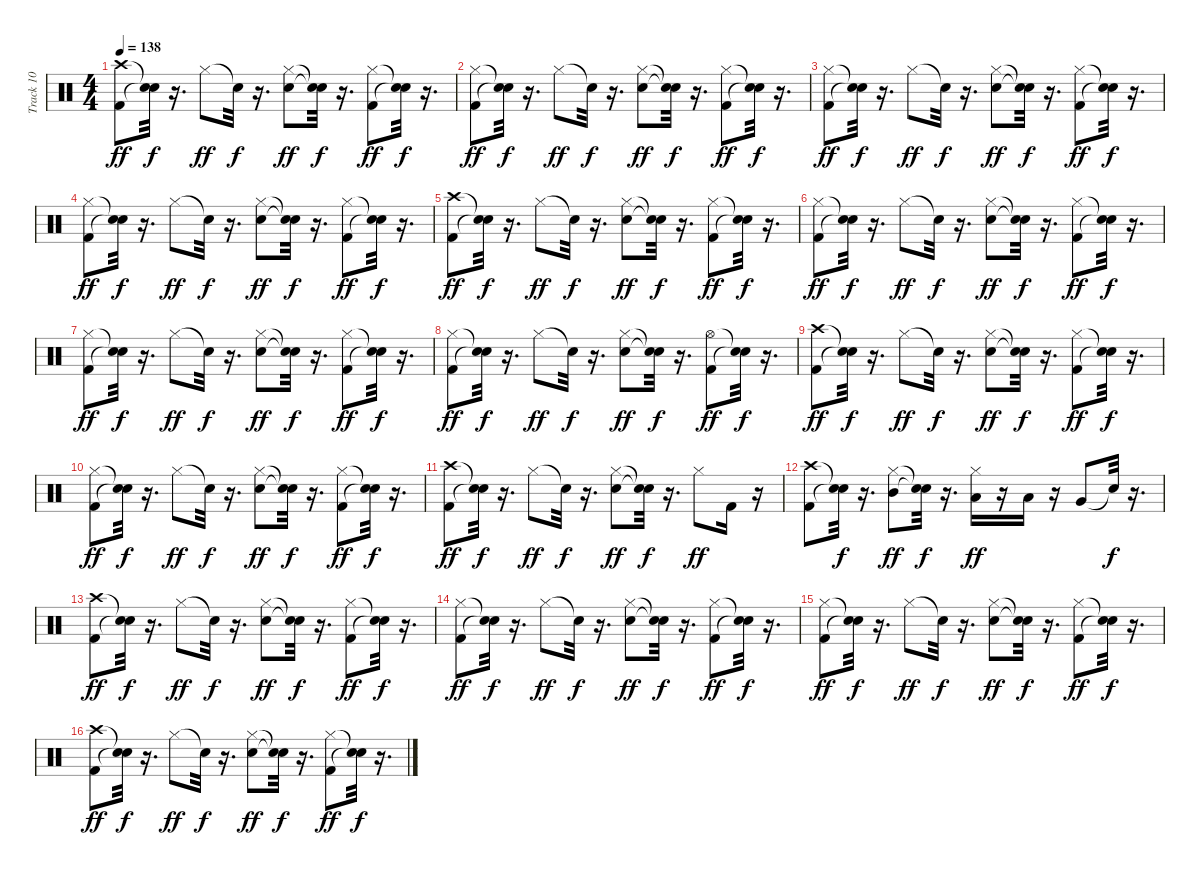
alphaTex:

\track ("Track 10" "Track 10") {instrument percussion}
\staff {score}
\articulation defaults
\ts (4 4)
\tempo 138
\clef neutral
\ks c
("Crash high (hit)" "Kick (hit) 2").8{dy ff} ("Snare (hit)"{t} "Snare (hit)"{t}).32{dy f} r.16{d} "Hi-Hat (closed)".8{dy ff} "Snare (hit)"{t}.32{dy f} r.16{d} ("Snare (hit) 2" "Hi-Hat (closed)").8{dy ff} ("Snare (hit)"{t} "Snare (hit)"{t}).32{dy f} r.16{d} ("Hi-Hat (closed)" "Kick (hit) 2").8{dy ff} ("Snare (hit)"{t} "Snare (hit)"{t}).32{dy f} r.16{d} |
("Hi-Hat (closed)" "Kick (hit) 2").8{dy ff} ("Snare (hit)"{t} "Snare (hit)"{t}).32{dy f} r.16{d} "Hi-Hat (closed)".8{dy ff} "Snare (hit)"{t}.32{dy f} r.16{d} ("Snare (hit) 2" "Hi-Hat (closed)").8{dy ff} ("Snare (hit)"{t} "Snare (hit)"{t}).32{dy f} r.16{d} ("Hi-Hat (closed)" "Kick (hit) 2").8{dy ff} ("Snare (hit)"{t} "Snare (hit)"{t}).32{dy f} r.16{d} |
("Hi-Hat (closed)" "Kick (hit) 2").8{dy ff} ("Snare (hit)"{t} "Snare (hit)"{t}).32{dy f} r.16{d} "Hi-Hat (closed)".8{dy ff} "Snare (hit)"{t}.32{dy f} r.16{d} ("Snare (hit) 2" "Hi-Hat (closed)").8{dy ff} ("Snare (hit)"{t} "Snare (hit)"{t}).32{dy f} r.16{d} ("Hi-Hat (closed)" "Kick (hit) 2").8{dy ff} ("Snare (hit)"{t} "Snare (hit)"{t}).32{dy f} r.16{d} |
("Hi-Hat (closed)" "Kick (hit) 2").8{dy ff} ("Snare (hit)"{t} "Snare (hit)"{t}).32{dy f} r.16{d} "Hi-Hat (closed)".8{dy ff} "Snare (hit)"{t}.32{dy f} r.16{d} ("Snare (hit) 2" "Hi-Hat (closed)").8{dy ff} ("Snare (hit)"{t} "Snare (hit)"{t}).32{dy f} r.16{d} ("Hi-Hat (closed)" "Kick (hit) 2").8{dy ff} ("Snare (hit)"{t} "Snare (hit)"{t}).32{dy f} r.16{d} |
("Crash high (hit)" "Kick (hit) 2").8{dy ff} ("Snare (hit)"{t} "Snare (hit)"{t}).32{dy f} r.16{d} "Hi-Hat (closed)".8{dy ff} "Snare (hit)"{t}.32{dy f} r.16{d} ("Snare (hit) 2" "Hi-Hat (closed)").8{dy ff} ("Snare (hit)"{t} "Snare (hit)"{t}).32{dy f} r.16{d} ("Hi-Hat (closed)" "Kick (hit) 2").8{dy ff} ("Snare (hit)"{t} "Snare (hit)"{t}).32{dy f} r.16{d} |
("Hi-Hat (closed)" "Kick (hit) 2").8{dy ff} ("Snare (hit)"{t} "Snare (hit)"{t}).32{dy f} r.16{d} "Hi-Hat (closed)".8{dy ff} "Snare (hit)"{t}.32{dy f} r.16{d} ("Snare (hit) 2" "Hi-Hat (closed)").8{dy ff} ("Snare (hit)"{t} "Snare (hit)"{t}).32{dy f} r.16{d} ("Hi-Hat (closed)" "Kick (hit) 2").8{dy ff} ("Snare (hit)"{t} "Snare (hit)"{t}).32{dy f} r.16{d} |
("Hi-Hat (closed)" "Kick (hit) 2").8{dy ff} ("Snare (hit)"{t} "Snare (hit)"{t}).32{dy f} r.16{d} "Hi-Hat (closed)".8{dy ff} "Snare (hit)"{t}.32{dy f} r.16{d} ("Snare (hit) 2" "Hi-Hat (closed)").8{dy ff} ("Snare (hit)"{t} "Snare (hit)"{t}).32{dy f} r.16{d} ("Hi-Hat (closed)" "Kick (hit) 2").8{dy ff} ("Snare (hit)"{t} "Snare (hit)"{t}).32{dy f} r.16{d} |
("Hi-Hat (closed)" "Kick (hit) 2").8{dy ff} ("Snare (hit)"{t} "Snare (hit)"{t}).32{dy f} r.16{d} "Hi-Hat (closed)".8{dy ff} "Snare (hit)"{t}.32{dy f} r.16{d} ("Snare (hit) 2" "Hi-Hat (closed)").8{dy ff} ("Snare (hit)"{t} "Snare (hit)"{t}).32{dy f} r.16{d} ("Hi-Hat (open)" "Kick (hit) 2").8{dy ff} ("Snare (hit)"{t} "Snare (hit)"{t}).32{dy f} r.16{d} |
("Crash high (hit)" "Kick (hit) 2").8{dy ff} ("Snare (hit)"{t} "Snare (hit)"{t}).32{dy f} r.16{d} "Hi-Hat (closed)".8{dy ff} "Snare (hit)"{t}.32{dy f} r.16{d} ("Snare (hit) 2" "Hi-Hat (closed)").8{dy ff} ("Snare (hit)"{t} "Snare (hit)"{t}).32{dy f} r.16{d} ("Hi-Hat (closed)" "Kick (hit) 2").8{dy ff} ("Snare (hit)"{t} "Snare (hit)"{t}).32{dy f} r.16{d} |
("Hi-Hat (closed)" "Kick (hit) 2").8{dy ff} ("Snare (hit)"{t} "Snare (hit)"{t}).32{dy f} r.16{d} "Hi-Hat (closed)".8{dy ff} "Snare (hit)"{t}.32{dy f} r.16{d} ("Snare (hit) 2" "Hi-Hat (closed)").8{dy ff} ("Snare (hit)"{t} "Snare (hit)"{t}).32{dy f} r.16{d} ("Hi-Hat (closed)" "Kick (hit) 2").8{dy ff} ("Snare (hit)"{t} "Snare (hit)"{t}).32{dy f} r.16{d} |
("Crash high (hit)" "Kick (hit) 2").8{dy ff} ("Snare (hit)"{t} "Snare (hit)"{t}).32{dy f} r.16{d} "Hi-Hat (closed)".8{dy ff} "Snare (hit)"{t}.32{dy f} r.16{d} ("Snare (hit) 2" "Hi-Hat (closed)").8{dy ff} ("Snare (hit)"{t} "Snare (hit)"{t}).32{dy f} r.16{d} "Hi-Hat (closed)".8{dy ff} "Kick (hit) 2".16 r.16 |
("Crash high (hit)" "Kick (hit) 2").8 ("Snare (hit)"{t} "Snare (hit)"{t}).32{dy f} r.16{d} ("Mid Tom (hit)" "Hi-Hat (closed)").8{dy ff} ("Snare (hit)"{t} "Snare (hit)"{t}).32{dy f} r.16{d} ("Low Tom (hit)" "Hi-Hat (closed)").16{dy ff} r.16 "Low Tom (hit)".16 r.16 "Very Low Tom (hit)".8 "Snare (hit)"{t}.32{dy f} r.16{d} |
("Crash high (hit)" "Kick (hit) 2").8{dy ff} ("Snare (hit)"{t} "Snare (hit)"{t}).32{dy f} r.16{d} "Hi-Hat (closed)".8{dy ff} "Snare (hit)"{t}.32{dy f} r.16{d} ("Snare (hit) 2" "Hi-Hat (closed)").8{dy ff} ("Snare (hit)"{t} "Snare (hit)"{t}).32{dy f} r.16{d} ("Hi-Hat (closed)" "Kick (hit) 2").8{dy ff} ("Snare (hit)"{t} "Snare (hit)"{t}).32{dy f} r.16{d} |
("Hi-Hat (closed)" "Kick (hit) 2").8{dy ff} ("Snare (hit)"{t} "Snare (hit)"{t}).32{dy f} r.16{d} "Hi-Hat (closed)".8{dy ff} "Snare (hit)"{t}.32{dy f} r.16{d} ("Snare (hit) 2" "Hi-Hat (closed)").8{dy ff} ("Snare (hit)"{t} "Snare (hit)"{t}).32{dy f} r.16{d} ("Hi-Hat (closed)" "Kick (hit) 2").8{dy ff} ("Snare (hit)"{t} "Snare (hit)"{t}).32{dy f} r.16{d} |
("Hi-Hat (closed)" "Kick (hit) 2").8{dy ff} ("Snare (hit)"{t} "Snare (hit)"{t}).32{dy f} r.16{d} "Hi-Hat (closed)".8{dy ff} "Snare (hit)"{t}.32{dy f} r.16{d} ("Snare (hit) 2" "Hi-Hat (closed)").8{dy ff} ("Snare (hit)"{t} "Snare (hit)"{t}).32{dy f} r.16{d} ("Hi-Hat (closed)" "Kick (hit) 2").8{dy ff} ("Snare (hit)"{t} "Snare (hit)"{t}).32{dy f} r.16{d} |
("Crash high (hit)" "Kick (hit) 2").8{dy ff} ("Snare (hit)"{t} "Snare (hit)"{t}).32{dy f} r.16{d} "Hi-Hat (closed)".8{dy ff} "Snare (hit)"{t}.32{dy f} r.16{d} ("Snare (hit) 2" "Hi-Hat (closed)").8{dy ff} ("Snare (hit)"{t} "Snare (hit)"{t}).32{dy f} r.16{d} ("Hi-Hat (closed)" "Kick (hit) 2").8{dy ff} ("Snare (hit)"{t} "Snare (hit)"{t}).32{dy f} r.16{d}
